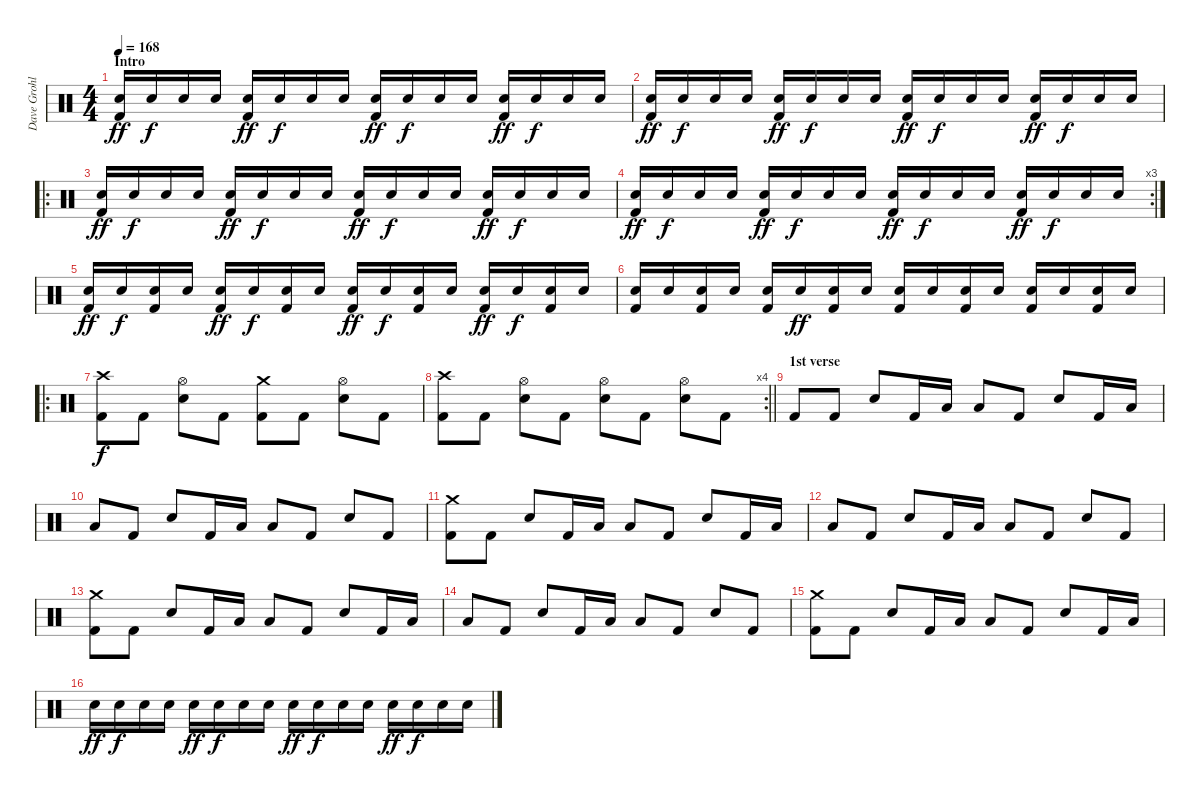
\track ("Dave Grohl - Drums" "Dave Grohl") {instrument percussion}
\staff {score}
\articulation defaults
\ts (4 4)
\section ("" "Intro")
\tempo 168
\clef neutral
\ks c
("Electric Snare (hit)" "Kick (hit) 2").16{dy ff volume 12} "Electric Snare (hit)".16{dy f} "Electric Snare (hit)".16 "Electric Snare (hit)".16 ("Electric Snare (hit)" "Kick (hit) 2").16{dy ff} "Electric Snare (hit)".16{dy f} "Electric Snare (hit)".16 "Electric Snare (hit)".16 ("Electric Snare (hit)" "Kick (hit) 2").16{dy ff} "Electric Snare (hit)".16{dy f} "Electric Snare (hit)".16 "Electric Snare (hit)".16 ("Electric Snare (hit)" "Kick (hit) 2").16{dy ff} "Electric Snare (hit)".16{dy f} "Electric Snare (hit)".16 "Electric Snare (hit)".16 |
("Electric Snare (hit)" "Kick (hit) 2").16{dy ff} "Electric Snare (hit)".16{dy f} "Electric Snare (hit)".16 "Electric Snare (hit)".16 ("Electric Snare (hit)" "Kick (hit) 2").16{dy ff} "Electric Snare (hit)".16{dy f} "Electric Snare (hit)".16 "Electric Snare (hit)".16 ("Electric Snare (hit)" "Kick (hit) 2").16{dy ff} "Electric Snare (hit)".16{dy f} "Electric Snare (hit)".16 "Electric Snare (hit)".16 ("Electric Snare (hit)" "Kick (hit) 2").16{dy ff} "Electric Snare (hit)".16{dy f} "Electric Snare (hit)".16 "Electric Snare (hit)".16 |
\ro
("Electric Snare (hit)" "Kick (hit) 2").16{dy ff} "Electric Snare (hit)".16{dy f} "Electric Snare (hit)".16 "Electric Snare (hit)".16 ("Electric Snare (hit)" "Kick (hit) 2").16{dy ff} "Electric Snare (hit)".16{dy f} "Electric Snare (hit)".16 "Electric Snare (hit)".16 ("Electric Snare (hit)" "Kick (hit) 2").16{dy ff} "Electric Snare (hit)".16{dy f} "Electric Snare (hit)".16 "Electric Snare (hit)".16 ("Electric Snare (hit)" "Kick (hit) 2").16{dy ff} "Electric Snare (hit)".16{dy f} "Electric Snare (hit)".16 "Electric Snare (hit)".16 |
\rc 3
("Electric Snare (hit)" "Kick (hit) 2").16{dy ff} "Electric Snare (hit)".16{dy f} "Electric Snare (hit)".16 "Electric Snare (hit)".16 ("Electric Snare (hit)" "Kick (hit) 2").16{dy ff} "Electric Snare (hit)".16{dy f} "Electric Snare (hit)".16 "Electric Snare (hit)".16 ("Electric Snare (hit)" "Kick (hit) 2").16{dy ff} "Electric Snare (hit)".16{dy f} "Electric Snare (hit)".16 "Electric Snare (hit)".16 ("Electric Snare (hit)" "Kick (hit) 2").16{dy ff} "Electric Snare (hit)".16{dy f} "Electric Snare (hit)".16 "Electric Snare (hit)".16 |
("Electric Snare (hit)" "Kick (hit) 2").16{dy ff} "Electric Snare (hit)".16{dy f} ("Electric Snare (hit)" "Kick (hit) 2").16 "Electric Snare (hit)".16 ("Electric Snare (hit)" "Kick (hit) 2").16{dy ff} "Electric Snare (hit)".16{dy f} ("Electric Snare (hit)" "Kick (hit) 2").16 "Electric Snare (hit)".16 ("Electric Snare (hit)" "Kick (hit) 2").16{dy ff} "Electric Snare (hit)".16{dy f} ("Electric Snare (hit)" "Kick (hit) 2").16 "Electric Snare (hit)".16 ("Electric Snare (hit)" "Kick (hit) 2").16{dy ff} "Electric Snare (hit)".16{dy f} ("Electric Snare (hit)" "Kick (hit) 2").16 "Electric Snare (hit)".16 |
("Electric Snare (hit)" "Kick (hit) 2").16 "Electric Snare (hit)".16 ("Electric Snare (hit)" "Kick (hit) 2").16 "Electric Snare (hit)".16 ("Electric Snare (hit)" "Kick (hit) 2").16 "Electric Snare (hit)".16{dy ff} ("Electric Snare (hit)" "Kick (hit) 2").16 "Electric Snare (hit)".16 ("Electric Snare (hit)" "Kick (hit) 2").16 "Electric Snare (hit)".16 ("Electric Snare (hit)" "Kick (hit) 2").16 "Electric Snare (hit)".16 ("Electric Snare (hit)" "Kick (hit) 2").16 "Electric Snare (hit)".16 ("Electric Snare (hit)" "Kick (hit) 2").16 "Electric Snare (hit)".16 |
\ro
("Crash high (hit)" "Kick (hit) 2").8{dy f volume 13} "Kick (hit) 2".8 ("Hi-Hat (open)" "Electric Snare (hit)").8 "Kick (hit) 2".8 ("Crash medium (hit)" "Kick (hit) 2").8 "Kick (hit) 2".8 ("Hi-Hat (open)" "Electric Snare (hit)").8 "Kick (hit) 2".8 |
\rc 4
\barLineRight lightlight
("Crash high (hit)" "Kick (hit) 2").8{volume 13} "Kick (hit) 2".8 ("Hi-Hat (open)" "Electric Snare (hit)").8 "Kick (hit) 2".8 ("Hi-Hat (open)" "Electric Snare (hit)").8 "Kick (hit) 2".8 ("Hi-Hat (open)" "Electric Snare (hit)").8 "Kick (hit) 2".8 |
\section ("" "1st verse")
"Kick (hit) 2".8 "Kick (hit) 2".8 "Electric Snare (hit)".8 "Kick (hit) 2".16 "Low Floor Tom (hit)".16 "Low Tom (hit)".8 "Kick (hit) 2".8 "Electric Snare (hit)".8 "Kick (hit) 2".16 "Low Floor Tom (hit)".16 |
"Low Tom (hit)".8 "Kick (hit) 2".8 "Electric Snare (hit)".8 "Kick (hit) 2".16 "Low Floor Tom (hit)".16 "Low Tom (hit)".8 "Kick (hit) 2".8 "Electric Snare (hit)".8 "Kick (hit) 2".8 |
("Crash medium (hit)" "Kick (hit) 2").8 "Kick (hit) 2".8 "Electric Snare (hit)".8 "Kick (hit) 2".16 "Low Floor Tom (hit)".16 "Low Tom (hit)".8 "Kick (hit) 2".8 "Electric Snare (hit)".8 "Kick (hit) 2".16 "Low Floor Tom (hit)".16 |
"Low Tom (hit)".8 "Kick (hit) 2".8 "Electric Snare (hit)".8 "Kick (hit) 2".16 "Low Floor Tom (hit)".16 "Low Tom (hit)".8 "Kick (hit) 2".8 "Electric Snare (hit)".8 "Kick (hit) 2".8 |
("Crash medium (hit)" "Kick (hit) 2").8 "Kick (hit) 2".8 "Electric Snare (hit)".8 "Kick (hit) 2".16 "Low Floor Tom (hit)".16 "Low Tom (hit)".8 "Kick (hit) 2".8 "Electric Snare (hit)".8 "Kick (hit) 2".16 "Low Floor Tom (hit)".16 |
"Low Tom (hit)".8 "Kick (hit) 2".8 "Electric Snare (hit)".8 "Kick (hit) 2".16 "Low Floor Tom (hit)".16 "Low Tom (hit)".8 "Kick (hit) 2".8 "Electric Snare (hit)".8 "Kick (hit) 2".8 |
("Crash medium (hit)" "Kick (hit) 2").8 "Kick (hit) 2".8 "Electric Snare (hit)".8 "Kick (hit) 2".16 "Low Floor Tom (hit)".16 "Low Tom (hit)".8 "Kick (hit) 2".8 "Electric Snare (hit)".8 "Kick (hit) 2".16 "Low Floor Tom (hit)".16 |
"Electric Snare (hit)".16{dy ff volume 12} "Electric Snare (hit)".16{dy f} "Electric Snare (hit)".16 "Electric Snare (hit)".16 "Electric Snare (hit)".16{dy ff} "Electric Snare (hit)".16{dy f} "Electric Snare (hit)".16 "Electric Snare (hit)".16 "Electric Snare (hit)".16{dy ff} "Electric Snare (hit)".16{dy f} "Electric Snare (hit)".16 "Electric Snare (hit)".16 "Electric Snare (hit)".16{dy ff} "Electric Snare (hit)".16{dy f} "Electric Snare (hit)".16 "Electric Snare (hit)".16
